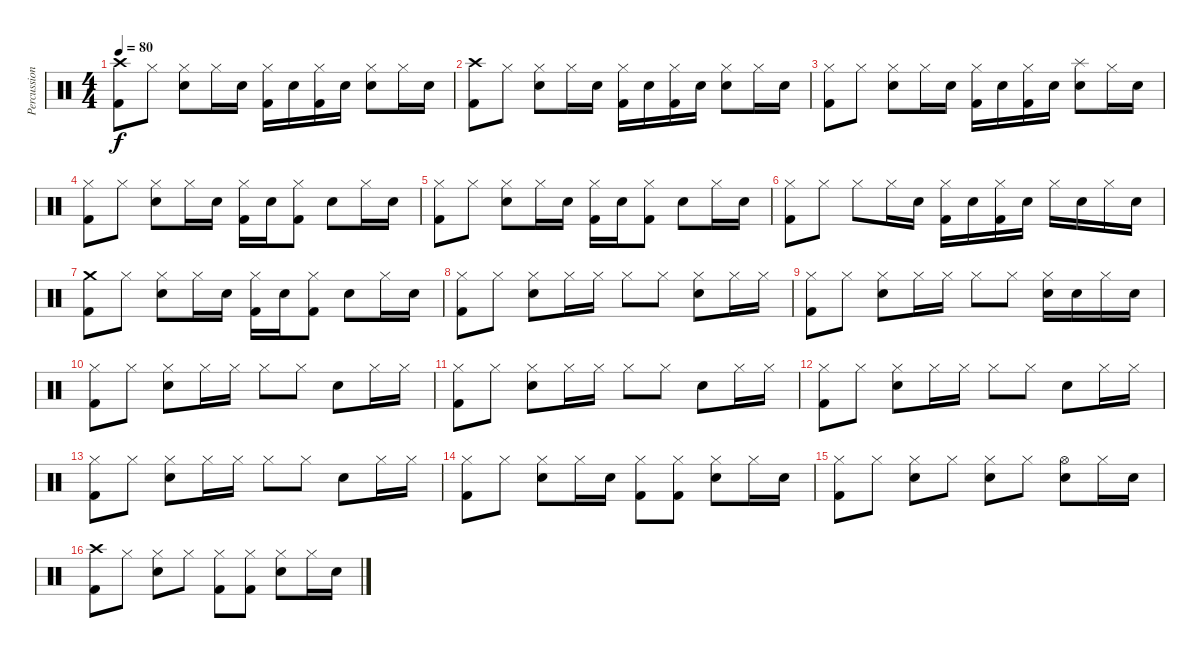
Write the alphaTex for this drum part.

\track ("Percussion" "Percussion") {instrument percussion}
\staff {score}
\articulation defaults
\ts (4 4)
\tempo 80
\clef neutral
\ks c
("Kick (hit) 2" "Crash high (hit)").8{dy f} "Hi-Hat (closed)".8 ("Snare (hit) 2" "Hi-Hat (closed)").8 "Hi-Hat (closed)".16 "Snare (hit) 2".16 ("Kick (hit) 2" "Hi-Hat (closed)").16 "Snare (hit) 2".16 ("Kick (hit) 2" "Hi-Hat (closed)").16 "Snare (hit) 2".16 ("Snare (hit) 2" "Hi-Hat (closed)").8 "Hi-Hat (closed)".16 "Snare (hit) 2".16 |
("Kick (hit) 2" "Crash high (hit)").8 "Hi-Hat (closed)".8 ("Snare (hit) 2" "Hi-Hat (closed)").8 "Hi-Hat (closed)".16 "Snare (hit) 2".16 ("Kick (hit) 2" "Hi-Hat (closed)").16 "Snare (hit) 2".16 ("Kick (hit) 2" "Hi-Hat (closed)").16 "Snare (hit) 2".16 ("Snare (hit) 2" "Hi-Hat (closed)").8 "Hi-Hat (closed)".16 "Snare (hit) 2".16 |
("Kick (hit) 2" "Hi-Hat (closed)").8 "Hi-Hat (closed)".8 ("Snare (hit) 2" "Hi-Hat (closed)").8 "Hi-Hat (closed)".16 "Snare (hit) 2".16 ("Kick (hit) 2" "Hi-Hat (closed)").16 "Snare (hit) 2".16 ("Kick (hit) 2" "Hi-Hat (closed)").16 "Snare (hit) 2".16 ("Snare (hit) 2" "Splash (hit)").8 "Hi-Hat (closed)".16 "Snare (hit) 2".16 |
("Kick (hit) 2" "Hi-Hat (closed)").8 "Hi-Hat (closed)".8 ("Snare (hit) 2" "Hi-Hat (closed)").8 "Hi-Hat (closed)".16 "Snare (hit) 2".16 ("Kick (hit) 2" "Hi-Hat (closed)").16 "Snare (hit) 2".16 ("Kick (hit) 2" "Hi-Hat (closed)").8 "Snare (hit) 2".8 "Hi-Hat (closed)".16 "Snare (hit) 2".16 |
("Kick (hit) 2" "Hi-Hat (closed)").8 "Hi-Hat (closed)".8 ("Snare (hit) 2" "Hi-Hat (closed)").8 "Hi-Hat (closed)".16 "Snare (hit) 2".16 ("Kick (hit) 2" "Hi-Hat (closed)").16 "Snare (hit) 2".16 ("Kick (hit) 2" "Hi-Hat (closed)").8 "Snare (hit) 2".8 "Hi-Hat (closed)".16 "Snare (hit) 2".16 |
("Kick (hit) 2" "Hi-Hat (closed)").8 "Hi-Hat (closed)".8 "Hi-Hat (closed)".8 "Hi-Hat (closed)".16 "Snare (hit) 2".16 ("Kick (hit) 2" "Hi-Hat (closed)").16 "Snare (hit) 2".16 ("Kick (hit) 2" "Hi-Hat (closed)").16 "Snare (hit) 2".16 "Hi-Hat (closed)".16 "Snare (hit) 2".16 "Hi-Hat (closed)".16 "Snare (hit) 2".16 |
("Kick (hit) 2" "Crash medium (hit)").8 "Hi-Hat (closed)".8 ("Snare (hit) 2" "Hi-Hat (closed)").8 "Hi-Hat (closed)".16 "Snare (hit) 2".16 ("Kick (hit) 2" "Hi-Hat (closed)").16 "Snare (hit) 2".16 ("Kick (hit) 2" "Hi-Hat (closed)").8 "Snare (hit) 2".8 "Hi-Hat (closed)".16 "Snare (hit) 2".16 |
("Kick (hit) 2" "Hi-Hat (closed)").8 "Hi-Hat (closed)".8 ("Snare (hit) 2" "Hi-Hat (closed)").8 "Hi-Hat (closed)".16 "Hi-Hat (closed)".16 "Hi-Hat (closed)".8 "Hi-Hat (closed)".8 ("Snare (hit) 2" "Hi-Hat (closed)").8 "Hi-Hat (closed)".16 "Hi-Hat (closed)".16 |
("Kick (hit) 2" "Hi-Hat (closed)").8 "Hi-Hat (closed)".8 ("Snare (hit) 2" "Hi-Hat (closed)").8 "Hi-Hat (closed)".16 "Hi-Hat (closed)".16 "Hi-Hat (closed)".8 "Hi-Hat (closed)".8 ("Snare (hit) 2" "Hi-Hat (closed)").16 "Snare (hit) 2".16 "Hi-Hat (closed)".16 "Snare (hit) 2".16 |
("Kick (hit) 2" "Hi-Hat (closed)").8 "Hi-Hat (closed)".8 ("Snare (hit) 2" "Hi-Hat (closed)").8 "Hi-Hat (closed)".16 "Hi-Hat (closed)".16 "Hi-Hat (closed)".8 "Hi-Hat (closed)".8 "Snare (hit) 2".8 "Hi-Hat (closed)".16 "Hi-Hat (closed)".16 |
("Kick (hit) 2" "Hi-Hat (closed)").8 "Hi-Hat (closed)".8 ("Snare (hit) 2" "Hi-Hat (closed)").8 "Hi-Hat (closed)".16 "Hi-Hat (closed)".16 "Hi-Hat (closed)".8 "Hi-Hat (closed)".8 "Snare (hit) 2".8 "Hi-Hat (closed)".16 "Hi-Hat (closed)".16 |
("Kick (hit) 2" "Hi-Hat (closed)").8 "Hi-Hat (closed)".8 ("Snare (hit) 2" "Hi-Hat (closed)").8 "Hi-Hat (closed)".16 "Hi-Hat (closed)".16 "Hi-Hat (closed)".8 "Hi-Hat (closed)".8 "Snare (hit) 2".8 "Hi-Hat (closed)".16 "Hi-Hat (closed)".16 |
("Kick (hit) 2" "Hi-Hat (closed)").8 "Hi-Hat (closed)".8 ("Snare (hit) 2" "Hi-Hat (closed)").8 "Hi-Hat (closed)".16 "Hi-Hat (closed)".16 "Hi-Hat (closed)".8 "Hi-Hat (closed)".8 "Snare (hit) 2".8 "Hi-Hat (closed)".16 "Hi-Hat (closed)".16 |
("Kick (hit) 2" "Hi-Hat (closed)").8 "Hi-Hat (closed)".8 ("Snare (hit) 2" "Hi-Hat (closed)").8 "Hi-Hat (closed)".16 "Snare (hit) 2".16 ("Kick (hit) 2" "Hi-Hat (closed)").8 ("Kick (hit) 2" "Hi-Hat (closed)").8 ("Snare (hit) 2" "Hi-Hat (closed)").8 "Hi-Hat (closed)".16 "Snare (hit) 2".16 |
("Kick (hit) 2" "Hi-Hat (closed)").8 "Hi-Hat (closed)".8 ("Snare (hit) 2" "Hi-Hat (closed)").8 "Hi-Hat (closed)".8 ("Snare (hit) 2" "Hi-Hat (closed)").8 "Hi-Hat (closed)".8 ("Snare (hit) 2" "Hi-Hat (open)").8 "Hi-Hat (closed)".16 "Snare (hit) 2".16 |
("Kick (hit) 2" "Crash high (hit)").8 "Hi-Hat (closed)".8 ("Snare (hit) 2" "Hi-Hat (closed)").8 "Hi-Hat (closed)".8 ("Kick (hit) 2" "Hi-Hat (closed)").8 ("Kick (hit) 2" "Hi-Hat (closed)").8 ("Snare (hit) 2" "Hi-Hat (closed)").8 "Hi-Hat (closed)".16 "Snare (hit) 2".16
